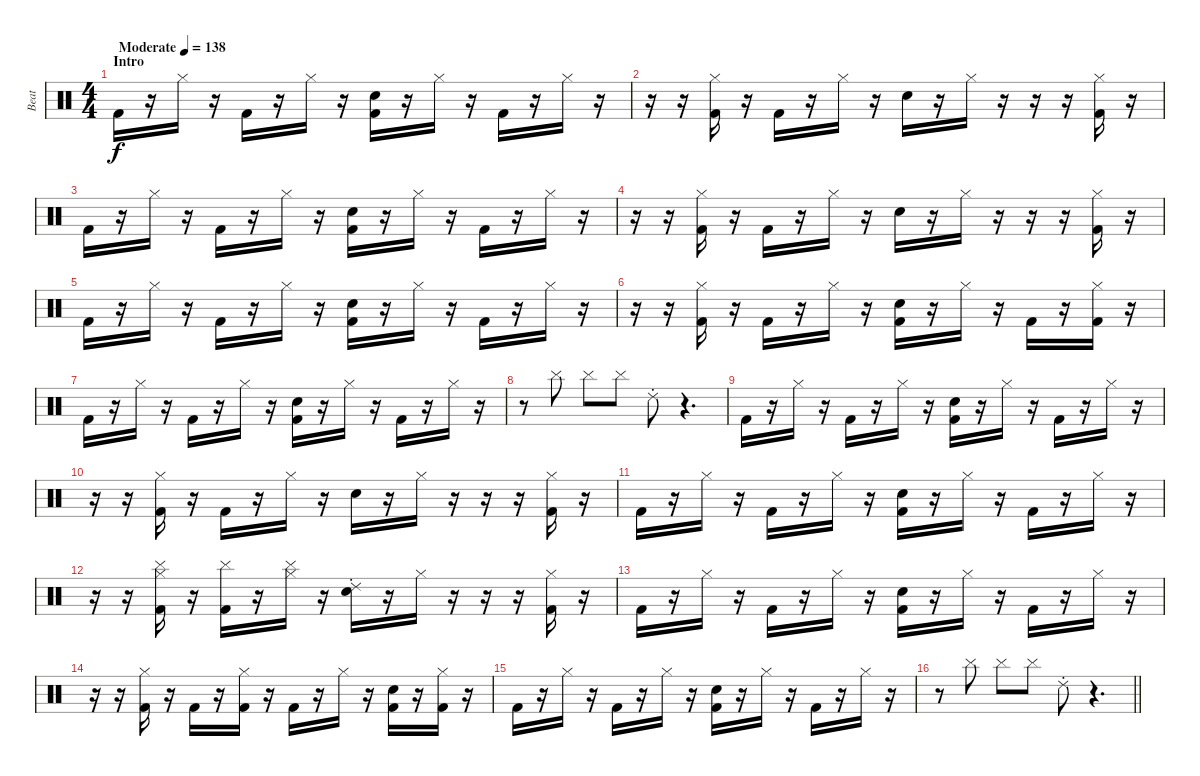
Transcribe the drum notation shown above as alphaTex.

\track ("Beat" "Beat") {instrument percussion}
\staff {score}
\articulation defaults
\ts (4 4)
\section ("" "Intro")
\tempo (138 "Moderate")
\clef neutral
\ks c "Kick (hit) 2".16{dy f}
r.16 "Hi-Hat (closed)".16 r.16 "Kick (hit) 2".16 r.16 "Hi-Hat (closed)".16 r.16 ("Electric Snare (hit)" "Kick (hit) 2").16 r.16 "Hi-Hat (closed)".16 r.16 "Kick (hit) 2".16 r.16 "Hi-Hat (closed)".16 r.16 |
r.16 r.16 ("Hi-Hat (closed)" "Kick (hit) 2").16 r.16 "Kick (hit) 2".16 r.16 "Hi-Hat (closed)".16 r.16 "Electric Snare (hit)".16 r.16 "Hi-Hat (closed)".16 r.16 r.16 r.16 ("Hi-Hat (closed)" "Kick (hit) 2").16 r.16 |
"Kick (hit) 2".16 r.16 "Hi-Hat (closed)".16 r.16 "Kick (hit) 2".16 r.16 "Hi-Hat (closed)".16 r.16 ("Electric Snare (hit)" "Kick (hit) 2").16 r.16 "Hi-Hat (closed)".16 r.16 "Kick (hit) 2".16 r.16 "Hi-Hat (closed)".16 r.16 |
r.16 r.16 ("Hi-Hat (closed)" "Kick (hit) 2").16 r.16 "Kick (hit) 2".16 r.16 "Hi-Hat (closed)".16 r.16 "Electric Snare (hit)".16 r.16 "Hi-Hat (closed)".16 r.16 r.16 r.16 ("Hi-Hat (closed)" "Kick (hit) 2").16 r.16 |
"Kick (hit) 2".16 r.16 "Hi-Hat (closed)".16 r.16 "Kick (hit) 2".16 r.16 "Hi-Hat (closed)".16 r.16 ("Electric Snare (hit)" "Kick (hit) 2").16 r.16 "Hi-Hat (closed)".16 r.16 "Kick (hit) 2".16 r.16 "Hi-Hat (closed)".16 r.16 |
r.16 r.16 ("Hi-Hat (closed)" "Kick (hit) 2").16 r.16 "Kick (hit) 2".16 r.16 "Hi-Hat (closed)".16 r.16 ("Electric Snare (hit)" "Kick (hit) 2").16 r.16 "Hi-Hat (closed)".16 r.16 "Kick (hit) 2".16 r.16 ("Hi-Hat (closed)" "Kick (hit) 2").16 r.16 |
"Kick (hit) 2".16 r.16 "Hi-Hat (closed)".16 r.16 "Kick (hit) 2".16 r.16 "Hi-Hat (closed)".16 r.16 ("Electric Snare (hit)" "Kick (hit) 2").16 r.16 "Hi-Hat (closed)".16 r.16 "Kick (hit) 2".16 r.16 "Hi-Hat (closed)".16 r.16 |
r.8 "Cymbal (hit)".8 "Cymbal (hit)".8 "Cymbal (hit)".8 "Ride (choke) 2".8 r.4{d} |
"Kick (hit) 2".16 r.16 "Hi-Hat (closed)".16 r.16 "Kick (hit) 2".16 r.16 "Hi-Hat (closed)".16 r.16 ("Electric Snare (hit)" "Kick (hit) 2").16 r.16 "Hi-Hat (closed)".16 r.16 "Kick (hit) 2".16 r.16 "Hi-Hat (closed)".16 r.16 |
r.16 r.16 ("Hi-Hat (closed)" "Kick (hit) 2").16 r.16 "Kick (hit) 2".16 r.16 "Hi-Hat (closed)".16 r.16 "Electric Snare (hit)".16 r.16 "Hi-Hat (closed)".16 r.16 r.16 r.16 ("Hi-Hat (closed)" "Kick (hit) 2").16 r.16 |
"Kick (hit) 2".16 r.16 "Hi-Hat (closed)".16 r.16 "Kick (hit) 2".16 r.16 "Hi-Hat (closed)".16 r.16 ("Electric Snare (hit)" "Kick (hit) 2").16 r.16 "Hi-Hat (closed)".16 r.16 "Kick (hit) 2".16 r.16 "Hi-Hat (closed)".16 r.16 |
r.16 r.16 ("Cymbal (hit)" "Hi-Hat (closed)" "Kick (hit) 2").16 r.16 ("Cymbal (hit)" "Kick (hit) 2").16 r.16 ("Cymbal (hit)" "Hi-Hat (closed)").16 r.16 ("Ride (choke) 2" "Electric Snare (hit)").16 r.16 "Hi-Hat (closed)".16 r.16 r.16 r.16 ("Hi-Hat (closed)" "Kick (hit) 2").16 r.16 |
"Kick (hit) 2".16 r.16 "Hi-Hat (closed)".16 r.16 "Kick (hit) 2".16 r.16 "Hi-Hat (closed)".16 r.16 ("Electric Snare (hit)" "Kick (hit) 2").16 r.16 "Hi-Hat (closed)".16 r.16 "Kick (hit) 2".16 r.16 "Hi-Hat (closed)".16 r.16 |
r.16 r.16 ("Hi-Hat (closed)" "Kick (hit) 2").16 r.16 "Kick (hit) 2".16 r.16 ("Hi-Hat (closed)" "Kick (hit) 2").16 r.16 "Kick (hit) 2".16 r.16 "Hi-Hat (closed)".16 r.16 ("Electric Snare (hit)" "Kick (hit) 2").16 r.16 ("Hi-Hat (closed)" "Kick (hit) 2").16 r.16 |
"Kick (hit) 2".16 r.16 "Hi-Hat (closed)".16 r.16 "Kick (hit) 2".16 r.16 "Hi-Hat (closed)".16 r.16 ("Electric Snare (hit)" "Kick (hit) 2").16 r.16 "Hi-Hat (closed)".16 r.16 "Kick (hit) 2".16 r.16 "Hi-Hat (closed)".16 r.16 |
\barLineRight lightlight
r.8 "Cymbal (hit)".8 "Cymbal (hit)".8 "Cymbal (hit)".8 "Ride (choke) 2".8 r.4{d}
